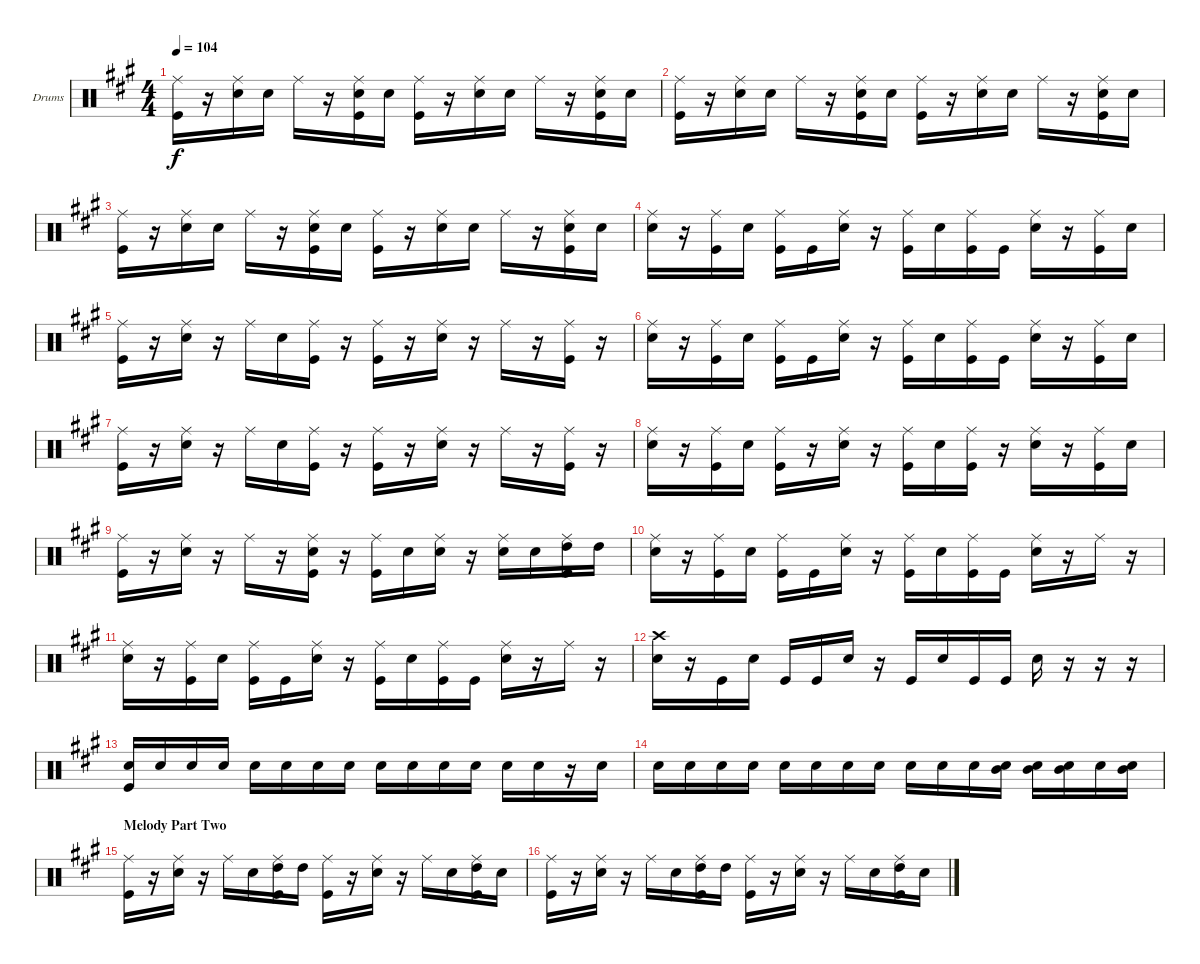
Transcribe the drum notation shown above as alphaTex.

\bracketExtendMode groupsimilarinstruments
\firstSystemTrackNameOrientation horizontal
\otherSystemsTrackNameOrientation horizontal
\track ("Drumkit" "Drums") {instrument percussion}
\staff {score}
\articulation defaults
\ts (4 4)
\tempo 104
\clef neutral
\ks a
("Ride (middle)" "Kick (hit)").16{dy f} r.16 ("Ride (middle)" "Snare (hit) 2").16 "Snare (hit) 2".16 "Ride (middle)".16 r.16 ("Ride (middle)" "Snare (hit) 2" "Kick (hit)").16 "Snare (hit) 2".16 ("Ride (middle)" "Kick (hit)").16 r.16 ("Ride (middle)" "Snare (hit) 2").16 "Snare (hit) 2".16 "Ride (middle)".16 r.16 ("Ride (middle)" "Snare (hit) 2" "Kick (hit)").16 "Snare (hit) 2".16 |
("Ride (middle)" "Kick (hit)").16 r.16 ("Ride (middle)" "Snare (hit) 2").16 "Snare (hit) 2".16 "Ride (middle)".16 r.16 ("Ride (middle)" "Snare (hit) 2" "Kick (hit)").16 "Snare (hit) 2".16 ("Ride (middle)" "Kick (hit)").16 r.16 ("Ride (middle)" "Snare (hit) 2").16 "Snare (hit) 2".16 "Ride (middle)".16 r.16 ("Ride (middle)" "Snare (hit) 2" "Kick (hit)").16 "Snare (hit) 2".16 |
("Ride (middle)" "Kick (hit)").16 r.16 ("Ride (middle)" "Snare (hit) 2").16 "Snare (hit) 2".16 "Ride (middle)".16 r.16 ("Ride (middle)" "Snare (hit) 2" "Kick (hit)").16 "Snare (hit) 2".16 ("Ride (middle)" "Kick (hit)").16 r.16 ("Ride (middle)" "Snare (hit) 2").16 "Snare (hit) 2".16 "Ride (middle)".16 r.16 ("Ride (middle)" "Snare (hit) 2" "Kick (hit)").16 "Snare (hit) 2".16 |
("Ride (middle)" "Snare (hit) 2").16 r.16 ("Ride (middle)" "Kick (hit)").16 "Snare (hit) 2".16 ("Ride (middle)" "Kick (hit)").16 "Kick (hit)".16 ("Ride (middle)" "Snare (hit) 2").16 r.16 ("Ride (middle)" "Kick (hit)").16 "Snare (hit) 2".16 ("Ride (middle)" "Kick (hit)").16 "Kick (hit)".16 ("Ride (middle)" "Snare (hit) 2").16 r.16 ("Ride (middle)" "Kick (hit)").16 "Snare (hit) 2".16 |
("Ride (middle)" "Kick (hit)").16 r.16 ("Ride (middle)" "Snare (hit) 2").16 r.16 "Ride (middle)".16 "Snare (hit) 2".16 ("Ride (middle)" "Kick (hit)").16 r.16 ("Ride (middle)" "Kick (hit)").16 r.16 ("Ride (middle)" "Snare (hit) 2").16 r.16 "Ride (middle)".16 r.16 ("Ride (middle)" "Kick (hit)").16 r.16 |
("Ride (middle)" "Snare (hit) 2").16 r.16 ("Ride (middle)" "Kick (hit)").16 "Snare (hit) 2".16 ("Ride (middle)" "Kick (hit)").16 "Kick (hit)".16 ("Ride (middle)" "Snare (hit) 2").16 r.16 ("Ride (middle)" "Kick (hit)").16 "Snare (hit) 2".16 ("Ride (middle)" "Kick (hit)").16 "Kick (hit)".16 ("Ride (middle)" "Snare (hit) 2").16 r.16 ("Ride (middle)" "Kick (hit)").16 "Snare (hit) 2".16 |
("Ride (middle)" "Kick (hit)").16 r.16 ("Ride (middle)" "Snare (hit) 2").16 r.16 "Ride (middle)".16 "Snare (hit) 2".16 ("Ride (middle)" "Kick (hit)").16 r.16 ("Ride (middle)" "Kick (hit)").16 r.16 ("Ride (middle)" "Snare (hit) 2").16 r.16 "Ride (middle)".16 r.16 ("Ride (middle)" "Kick (hit)").16 r.16 |
("Ride (middle)" "Snare (hit) 2").16 r.16 ("Ride (middle)" "Kick (hit)").16 "Snare (hit) 2".16 ("Ride (middle)" "Kick (hit)").16 r.16 ("Ride (middle)" "Snare (hit) 2").16 r.16 ("Ride (middle)" "Kick (hit)").16 "Snare (hit) 2".16 ("Ride (middle)" "Kick (hit)").16 r.16 ("Ride (middle)" "Snare (hit) 2").16 r.16 ("Ride (middle)" "Kick (hit)").16 "Snare (hit) 2".16 |
("Ride (middle)" "Kick (hit)").16 r.16 ("Ride (middle)" "Snare (hit) 2").16 r.16 "Ride (middle)".16 r.16 ("Ride (middle)" "Snare (hit) 2" "Kick (hit)").16 r.16 ("Ride (middle)" "Kick (hit)").16 "Snare (hit) 2".16 ("Ride (middle)" "Snare (hit) 2").16 r.16 ("Ride (middle)" "Snare (hit) 2").16 "Snare (hit) 2".16 ("Ride (middle)" "High Tom (hit)" "Kick (hit)").16 "High Tom (hit)".16 |
("Ride (middle)" "Snare (hit) 2").16 r.16 ("Ride (middle)" "Kick (hit)").16 "Snare (hit) 2".16 ("Ride (middle)" "Kick (hit)").16 "Kick (hit)".16 ("Ride (middle)" "Snare (hit) 2").16 r.16 ("Ride (middle)" "Kick (hit)").16 "Snare (hit) 2".16 ("Ride (middle)" "Kick (hit)").16 "Kick (hit)".16 ("Ride (middle)" "Snare (hit) 2").16 r.16 "Ride (middle)".16 r.16 |
("Ride (middle)" "Snare (hit) 2").16 r.16 ("Ride (middle)" "Kick (hit)").16 "Snare (hit) 2".16 ("Ride (middle)" "Kick (hit)").16 "Kick (hit)".16 ("Ride (middle)" "Snare (hit) 2").16 r.16 ("Ride (middle)" "Kick (hit)").16 "Snare (hit) 2".16 ("Ride (middle)" "Kick (hit)").16 "Kick (hit)".16 ("Ride (middle)" "Snare (hit) 2").16 r.16 "Ride (middle)".16 r.16 |
("Crash high (hit)" "Snare (hit) 2").16 r.16 "Kick (hit)".16 "Snare (hit) 2".16 "Kick (hit)".16 "Kick (hit)".16 "Snare (hit) 2".16 r.16 "Kick (hit)".16 "Snare (hit) 2".16 "Kick (hit)".16 "Kick (hit)".16 "Snare (hit) 2".16 r.16 r.16 r.16 |
("Snare (hit) 2" "Kick (hit)").16 "Snare (hit) 2".16 "Snare (hit) 2".16 "Snare (hit) 2".16 "Snare (hit) 2".16 "Snare (hit) 2".16 "Snare (hit) 2".16 "Snare (hit) 2".16 "Snare (hit) 2".16 "Snare (hit) 2".16 "Snare (hit) 2".16 "Snare (hit) 2".16 "Snare (hit) 2".16 "Snare (hit) 2".16 r.16 "Snare (hit) 2".16 |
"Snare (hit) 2".16 "Snare (hit) 2".16 "Snare (hit) 2".16 "Snare (hit) 2".16 "Snare (hit) 2".16 "Snare (hit) 2".16 "Snare (hit) 2".16 "Snare (hit) 2".16 "Snare (hit) 2".16 "Snare (hit) 2".16 "Snare (hit) 2".16 ("Mid Tom (hit)" "Snare (hit) 2").16 ("Mid Tom (hit)" "Snare (hit) 2").16 ("Mid Tom (hit)" "Snare (hit) 2").16 "Snare (hit) 2".16 ("Mid Tom (hit)" "Snare (hit) 2").16 |
\section ("" "Melody Part Two")
("Ride (middle)" "Kick (hit)").16 r.16 ("Ride (middle)" "Snare (hit) 2").16 r.16 "Ride (middle)".16 "Snare (hit) 2".16 ("Ride (middle)" "High Tom (hit)" "Kick (hit)").16 "High Tom (hit)".16 ("Ride (middle)" "Kick (hit)").16 r.16 ("Ride (middle)" "Snare (hit) 2").16 r.16 "Ride (middle)".16 "Snare (hit) 2".16 ("Ride (middle)" "High Tom (hit)" "Kick (hit)").16 "Snare (hit) 2".16 |
("Ride (middle)" "Kick (hit)").16 r.16 ("Ride (middle)" "Snare (hit) 2").16 r.16 "Ride (middle)".16 "Snare (hit) 2".16 ("Ride (middle)" "High Tom (hit)" "Kick (hit)").16 "High Tom (hit)".16 ("Ride (middle)" "Kick (hit)").16 r.16 ("Ride (middle)" "Snare (hit) 2").16 r.16 "Ride (middle)".16 "Snare (hit) 2".16 ("Ride (middle)" "High Tom (hit)" "Kick (hit)").16 "Snare (hit) 2".16
